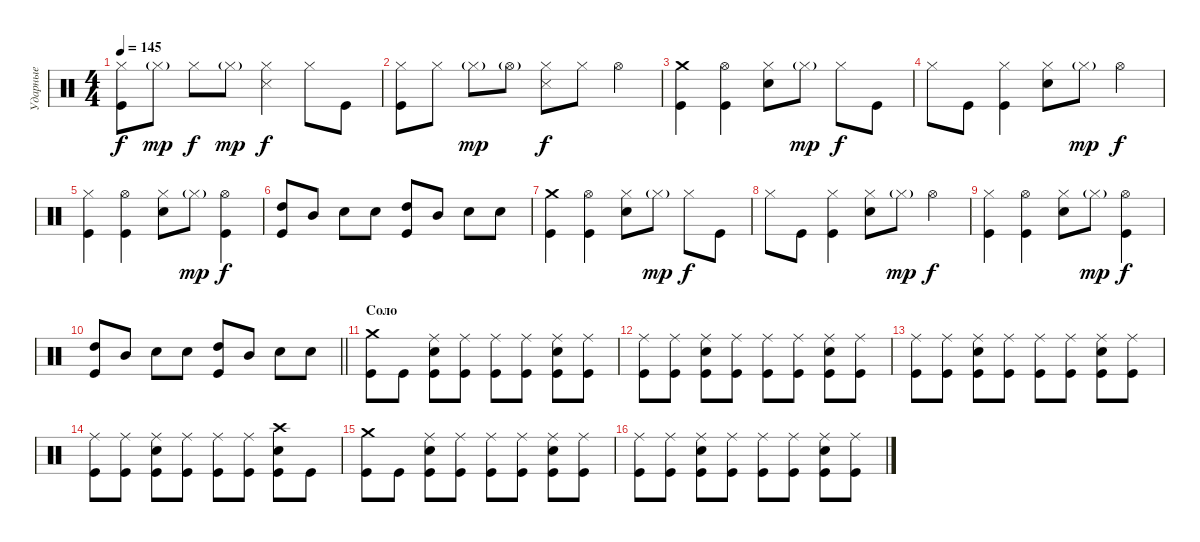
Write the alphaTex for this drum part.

\track ("Ударные" "Ударные") {instrument percussion}
\staff {score}
\articulation defaults
\ts (4 4)
\tempo 145
\clef neutral
\ks c
("Kick (hit)" "Hi-Hat (closed)").8{dy f} "Hi-Hat (closed)"{g}.8{dy mp} "Hi-Hat (closed)".8{dy f} "Hi-Hat (closed)"{g}.8{dy mp} ("Metronome (hit)" "Hi-Hat (closed)").4{dy f} "Hi-Hat (closed)".8 "Kick (hit)".8 |
("Kick (hit)" "Hi-Hat (closed)").8 "Hi-Hat (closed)".8 "Hi-Hat (closed)"{g}.8{dy mp} "Hi-Hat (open)"{g}.8 ("Metronome (hit)" "Hi-Hat (closed)").8{dy f} "Hi-Hat (closed)".8 "Hi-Hat (open)".4 |
("Kick (hit)" "Crash medium (hit)").4 ("Kick (hit)" "Hi-Hat (open)").4 ("Snare (hit) 2" "Hi-Hat (closed)").8 "Hi-Hat (closed)"{g}.8{dy mp} "Hi-Hat (closed)".8{dy f} "Kick (hit)".8 |
"Hi-Hat (closed)".8 "Kick (hit)".8 ("Kick (hit)" "Hi-Hat (closed)").4 ("Snare (hit) 2" "Hi-Hat (closed)").8 "Hi-Hat (closed)"{g}.8{dy mp} "Hi-Hat (open)".4{dy f} |
("Kick (hit)" "Hi-Hat (closed)").4 ("Kick (hit)" "Hi-Hat (open)").4 ("Snare (hit) 2" "Hi-Hat (closed)").8 "Hi-Hat (closed)"{g}.8{dy mp} ("Kick (hit)" "Hi-Hat (open)").4{dy f} |
("Kick (hit)" "High Tom (hit)").8 "Mid Tom (hit)".8 "Snare (hit) 2".8 "Snare (hit) 2".8 ("Kick (hit)" "High Tom (hit)").8 "Mid Tom (hit)".8 "Snare (hit) 2".8 "Snare (hit) 2".8 |
("Kick (hit)" "Crash medium (hit)").4 ("Kick (hit)" "Hi-Hat (open)").4 ("Snare (hit) 2" "Hi-Hat (closed)").8 "Hi-Hat (closed)"{g}.8{dy mp} "Hi-Hat (closed)".8{dy f} "Kick (hit)".8 |
"Hi-Hat (closed)".8 "Kick (hit)".8 ("Kick (hit)" "Hi-Hat (closed)").4 ("Snare (hit) 2" "Hi-Hat (closed)").8 "Hi-Hat (closed)"{g}.8{dy mp} "Hi-Hat (open)".4{dy f} |
("Kick (hit)" "Hi-Hat (closed)").4 ("Kick (hit)" "Hi-Hat (open)").4 ("Snare (hit) 2" "Hi-Hat (closed)").8 "Hi-Hat (closed)"{g}.8{dy mp} ("Kick (hit)" "Hi-Hat (open)").4{dy f} |
\barLineRight lightlight
("Kick (hit)" "High Tom (hit)").8 "Mid Tom (hit)".8 "Snare (hit) 2".8 "Snare (hit) 2".8 ("Kick (hit)" "High Tom (hit)").8 "Mid Tom (hit)".8 "Snare (hit) 2".8 "Snare (hit) 2".8 |
\section ("" "Соло")
("Kick (hit)" "Crash medium (hit)").8 "Kick (hit)".8 ("Kick (hit)" "Snare (hit) 2" "Ride (middle)").8 ("Kick (hit)" "Ride (middle)").8 ("Kick (hit)" "Ride (middle)").8 ("Kick (hit)" "Ride (middle)").8 ("Kick (hit)" "Snare (hit) 2" "Ride (middle)").8 ("Kick (hit)" "Ride (middle)").8 |
("Kick (hit)" "Ride (middle)").8 ("Kick (hit)" "Ride (middle)").8 ("Kick (hit)" "Snare (hit) 2" "Ride (middle)").8 ("Kick (hit)" "Ride (middle)").8 ("Kick (hit)" "Ride (middle)").8 ("Kick (hit)" "Ride (middle)").8 ("Kick (hit)" "Snare (hit) 2" "Ride (middle)").8 ("Kick (hit)" "Ride (middle)").8 |
("Kick (hit)" "Ride (middle)").8 ("Kick (hit)" "Ride (middle)").8 ("Kick (hit)" "Snare (hit) 2" "Ride (middle)").8 ("Kick (hit)" "Ride (middle)").8 ("Kick (hit)" "Ride (middle)").8 ("Kick (hit)" "Ride (middle)").8 ("Kick (hit)" "Snare (hit) 2" "Ride (middle)").8 ("Kick (hit)" "Ride (middle)").8 |
("Kick (hit)" "Ride (middle)").8 ("Kick (hit)" "Ride (middle)").8 ("Kick (hit)" "Snare (hit) 2" "Ride (middle)").8 ("Kick (hit)" "Ride (middle)").8 ("Kick (hit)" "Ride (middle)").8 ("Kick (hit)" "Ride (middle)").8 ("Kick (hit)" "Snare (hit) 2" "Crash high (hit)").8 "Kick (hit)".8 |
("Kick (hit)" "Crash medium (hit)").8 "Kick (hit)".8 ("Kick (hit)" "Snare (hit) 2" "Ride (middle)").8 ("Kick (hit)" "Ride (middle)").8 ("Kick (hit)" "Ride (middle)").8 ("Kick (hit)" "Ride (middle)").8 ("Kick (hit)" "Snare (hit) 2" "Ride (middle)").8 ("Kick (hit)" "Ride (middle)").8 |
("Kick (hit)" "Ride (middle)").8 ("Kick (hit)" "Ride (middle)").8 ("Kick (hit)" "Snare (hit) 2" "Ride (middle)").8 ("Kick (hit)" "Ride (middle)").8 ("Kick (hit)" "Ride (middle)").8 ("Kick (hit)" "Ride (middle)").8 ("Kick (hit)" "Snare (hit) 2" "Ride (middle)").8 ("Kick (hit)" "Ride (middle)").8
